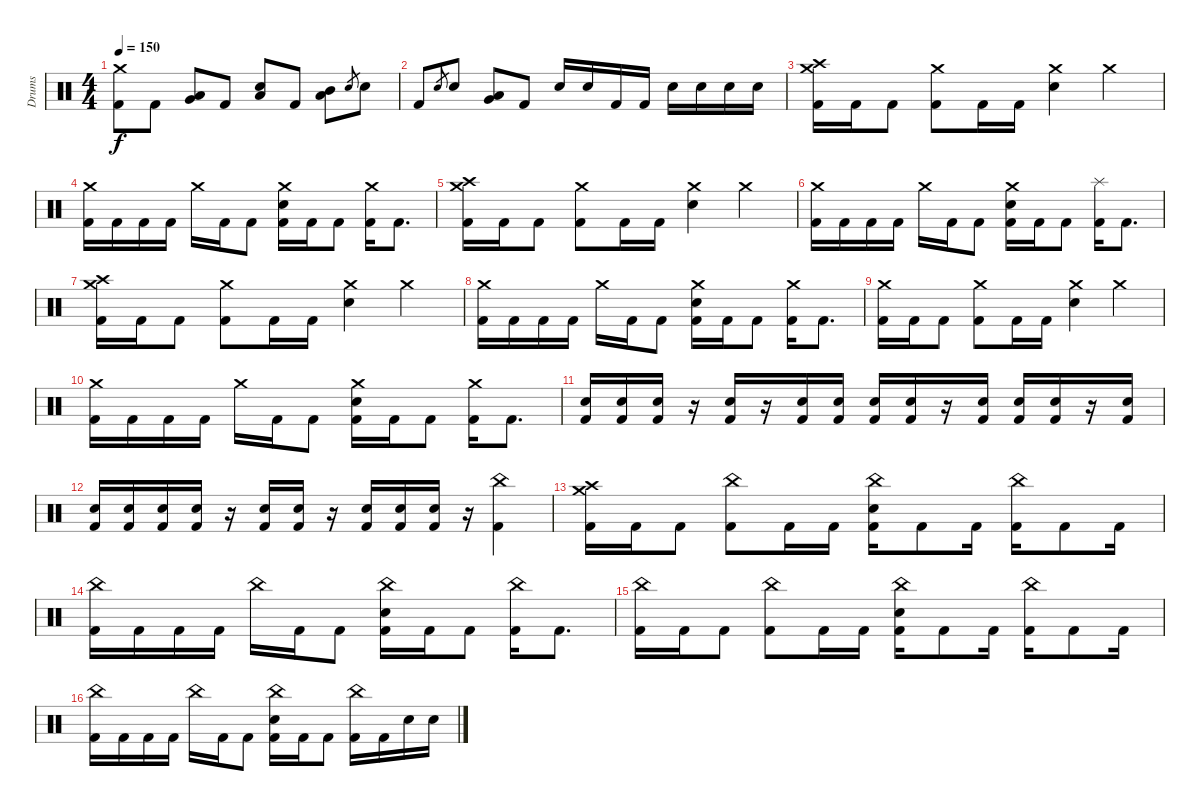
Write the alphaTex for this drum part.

\track ("Drums" "Drums") {instrument percussion}
\staff {score}
\articulation defaults
\ts (4 4)
\tempo 150
\clef neutral
\ks c
("Crash medium (hit)" "Kick (hit) 2").8{dy f} "Kick (hit) 2".8 ("Low Tom (hit)" "Very Low Tom (hit)").8 "Kick (hit) 2".8 ("Low Tom (hit)" "Electric Snare (hit)").8 "Kick (hit) 2".8 ("Mid Tom (hit)" "Low Tom (hit)").8 "Electric Snare (hit)".8{gr} "Electric Snare (hit)".8 |
"Kick (hit) 2".8 "Electric Snare (hit)".8{gr} "Electric Snare (hit)".8 ("Low Tom (hit)" "Very Low Tom (hit)").8 "Kick (hit) 2".8 "Electric Snare (hit)".16 "Electric Snare (hit)".16 "Kick (hit) 2".16 "Kick (hit) 2".16 "Electric Snare (hit)".16 "Electric Snare (hit)".16 "Electric Snare (hit)".16 "Electric Snare (hit)".16 |
("Crash medium (hit)" "Crash high (hit)" "Kick (hit) 2").16 "Kick (hit) 2".16 "Kick (hit) 2".8 ("Crash medium (hit)" "Kick (hit) 2").8 "Kick (hit) 2".16 "Kick (hit) 2".16 ("Crash medium (hit)" "Electric Snare (hit)").4 "Crash medium (hit)".4 |
("Crash medium (hit)" "Kick (hit) 2").16 "Kick (hit) 2".16 "Kick (hit) 2".16 "Kick (hit) 2".16 "Crash medium (hit)".16 "Kick (hit) 2".16 "Kick (hit) 2".8 ("Crash medium (hit)" "Electric Snare (hit)" "Kick (hit) 2").16 "Kick (hit) 2".16 "Kick (hit) 2".8 ("Crash medium (hit)" "Kick (hit) 2").16 "Kick (hit) 2".8{d} |
("Crash medium (hit)" "Crash high (hit)" "Kick (hit) 2").16 "Kick (hit) 2".16 "Kick (hit) 2".8 ("Crash medium (hit)" "Kick (hit) 2").8 "Kick (hit) 2".16 "Kick (hit) 2".16 ("Crash medium (hit)" "Electric Snare (hit)").4 "Crash medium (hit)".4 |
("Crash medium (hit)" "Kick (hit) 2").16 "Kick (hit) 2".16 "Kick (hit) 2".16 "Kick (hit) 2".16 "Crash medium (hit)".16 "Kick (hit) 2".16 "Kick (hit) 2".8 ("Crash medium (hit)" "Electric Snare (hit)" "Kick (hit) 2").16 "Kick (hit) 2".16 "Kick (hit) 2".8 ("Splash (hit)" "Kick (hit) 2").16 "Kick (hit) 2".8{d} |
("Crash high (hit)" "Crash medium (hit)" "Kick (hit) 2").16 "Kick (hit) 2".16 "Kick (hit) 2".8 ("Crash medium (hit)" "Kick (hit) 2").8 "Kick (hit) 2".16 "Kick (hit) 2".16 ("Crash medium (hit)" "Electric Snare (hit)").4 "Crash medium (hit)".4 |
("Crash medium (hit)" "Kick (hit) 2").16 "Kick (hit) 2".16 "Kick (hit) 2".16 "Kick (hit) 2".16 "Crash medium (hit)".16 "Kick (hit) 2".16 "Kick (hit) 2".8 ("Crash medium (hit)" "Electric Snare (hit)" "Kick (hit) 2").16 "Kick (hit) 2".16 "Kick (hit) 2".8 ("Crash medium (hit)" "Kick (hit) 2").16 "Kick (hit) 2".8{d} |
("Crash medium (hit)" "Kick (hit) 2").16 "Kick (hit) 2".16 "Kick (hit) 2".8 ("Crash medium (hit)" "Kick (hit) 2").8 "Kick (hit) 2".16 "Kick (hit) 2".16 ("Crash medium (hit)" "Electric Snare (hit)").4 "Crash medium (hit)".4 |
("Crash medium (hit)" "Kick (hit) 2").16 "Kick (hit) 2".16 "Kick (hit) 2".16 "Kick (hit) 2".16 "Crash medium (hit)".16 "Kick (hit) 2".16 "Kick (hit) 2".8 ("Crash medium (hit)" "Electric Snare (hit)" "Kick (hit) 2").16 "Kick (hit) 2".16 "Kick (hit) 2".8 ("Crash medium (hit)" "Kick (hit) 2").16 "Kick (hit) 2".8{d} |
("Electric Snare (hit)" "Kick (hit) 2").16 ("Electric Snare (hit)" "Kick (hit) 2").16 ("Electric Snare (hit)" "Kick (hit) 2").16 r.16 ("Electric Snare (hit)" "Kick (hit) 2").16 r.16 ("Electric Snare (hit)" "Kick (hit) 2").16 ("Electric Snare (hit)" "Kick (hit) 2").16 ("Electric Snare (hit)" "Kick (hit) 2").16 ("Electric Snare (hit)" "Kick (hit) 2").16 r.16 ("Electric Snare (hit)" "Kick (hit) 2").16 ("Electric Snare (hit)" "Kick (hit) 2").16 ("Electric Snare (hit)" "Kick (hit) 2").16 r.16 ("Electric Snare (hit)" "Kick (hit) 2").16 |
("Electric Snare (hit)" "Kick (hit) 2").16 ("Electric Snare (hit)" "Kick (hit) 2").16 ("Electric Snare (hit)" "Kick (hit) 2").16 ("Electric Snare (hit)" "Kick (hit) 2").16 r.16 ("Electric Snare (hit)" "Kick (hit) 2").16 ("Electric Snare (hit)" "Kick (hit) 2").16 r.16 ("Electric Snare (hit)" "Kick (hit) 2").16 ("Electric Snare (hit)" "Kick (hit) 2").16 ("Electric Snare (hit)" "Kick (hit) 2").16 r.16 ("China (hit)" "Kick (hit) 2").4 |
("Crash medium (hit)" "Crash high (hit)" "Kick (hit) 2").16 "Kick (hit) 2".16 "Kick (hit) 2".8 ("China (hit)" "Kick (hit) 2").8 "Kick (hit) 2".16 "Kick (hit) 2".16 ("China (hit)" "Electric Snare (hit)" "Kick (hit) 2").16 "Kick (hit) 2".8 "Kick (hit) 2".16 ("China (hit)" "Kick (hit) 2").16 "Kick (hit) 2".8 "Kick (hit) 2".16 |
("China (hit)" "Kick (hit) 2").16 "Kick (hit) 2".16 "Kick (hit) 2".16 "Kick (hit) 2".16 "China (hit)".16 "Kick (hit) 2".16 "Kick (hit) 2".8 ("China (hit)" "Electric Snare (hit)" "Kick (hit) 2").16 "Kick (hit) 2".16 "Kick (hit) 2".8 ("China (hit)" "Kick (hit) 2").16 "Kick (hit) 2".8{d} |
("China (hit)" "Kick (hit) 2").16 "Kick (hit) 2".16 "Kick (hit) 2".8 ("China (hit)" "Kick (hit) 2").8 "Kick (hit) 2".16 "Kick (hit) 2".16 ("China (hit)" "Electric Snare (hit)" "Kick (hit) 2").16 "Kick (hit) 2".8 "Kick (hit) 2".16 ("China (hit)" "Kick (hit) 2").16 "Kick (hit) 2".8 "Kick (hit) 2".16 |
("China (hit)" "Kick (hit) 2").16 "Kick (hit) 2".16 "Kick (hit) 2".16 "Kick (hit) 2".16 "China (hit)".16 "Kick (hit) 2".16 "Kick (hit) 2".8 ("China (hit)" "Electric Snare (hit)" "Kick (hit) 2").16 "Kick (hit) 2".16 "Kick (hit) 2".8 ("China (hit)" "Kick (hit) 2").16 "Kick (hit) 2".16 "Electric Snare (hit)".16 "Electric Snare (hit)".16
